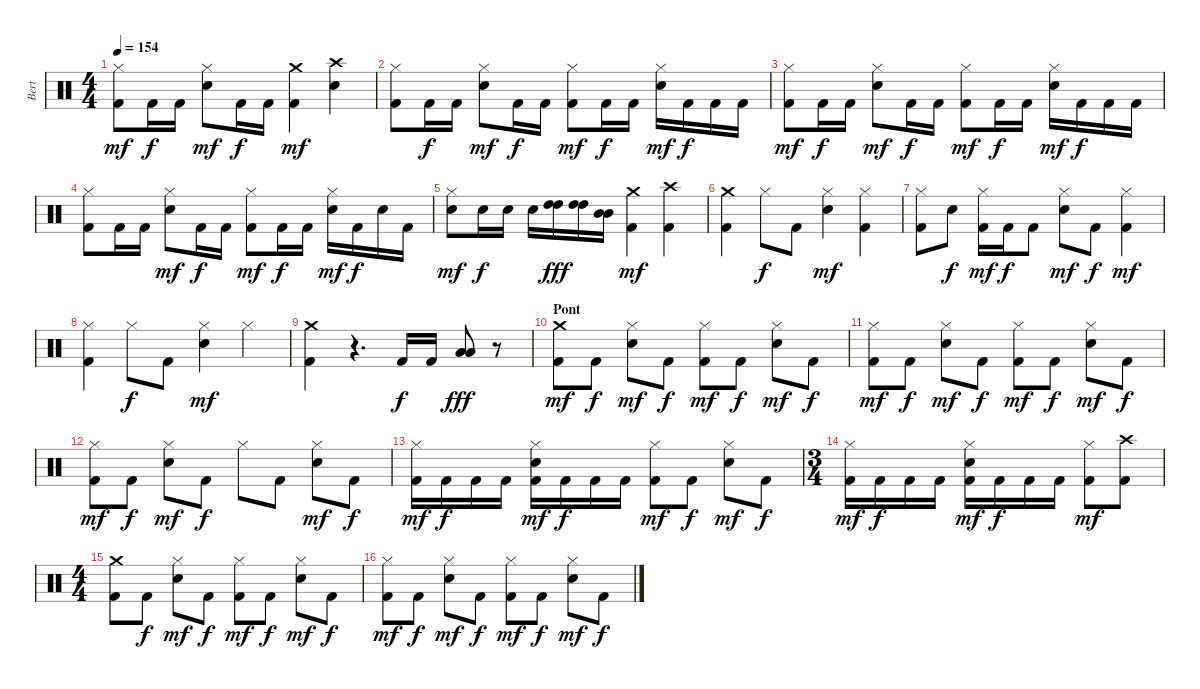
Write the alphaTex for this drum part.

\track ("Bert" "Bert") {instrument percussion}
\staff {score}
\articulation defaults
\ts (4 4)
\tempo 154
\clef neutral
\ks c
("Hi-Hat (closed)" "Kick (hit) 2").8{dy mf} "Kick (hit) 2".16{dy f} "Kick (hit) 2".16 ("Hi-Hat (closed)" "Snare (hit) 2").8{dy mf} "Kick (hit) 2".16{dy f} "Kick (hit) 2".16 ("Crash medium (hit)" "Kick (hit) 2").4{dy mf} ("Crash high (hit)" "Snare (hit) 2").4 |
("Hi-Hat (closed)" "Kick (hit) 2").8 "Kick (hit) 2".16{dy f} "Kick (hit) 2".16 ("Hi-Hat (closed)" "Snare (hit) 2").8{dy mf} "Kick (hit) 2".16{dy f} "Kick (hit) 2".16 ("Hi-Hat (closed)" "Kick (hit) 2").8{dy mf} "Kick (hit) 2".16{dy f} "Kick (hit) 2".16 ("Hi-Hat (closed)" "Snare (hit) 2").16{dy mf} "Kick (hit) 2".16{dy f} "Kick (hit) 2".16 "Kick (hit) 2".16 |
("Hi-Hat (closed)" "Kick (hit) 2").8{dy mf} "Kick (hit) 2".16{dy f} "Kick (hit) 2".16 ("Hi-Hat (closed)" "Snare (hit) 2").8{dy mf} "Kick (hit) 2".16{dy f} "Kick (hit) 2".16 ("Hi-Hat (closed)" "Kick (hit) 2").8{dy mf} "Kick (hit) 2".16{dy f} "Kick (hit) 2".16 ("Hi-Hat (closed)" "Snare (hit) 2").16{dy mf} "Kick (hit) 2".16{dy f} "Kick (hit) 2".16 "Kick (hit) 2".16 |
("Hi-Hat (closed)" "Kick (hit) 2").8 "Kick (hit) 2".16 "Kick (hit) 2".16 ("Hi-Hat (closed)" "Snare (hit) 2").8{dy mf} "Kick (hit) 2".16{dy f} "Kick (hit) 2".16 ("Hi-Hat (closed)" "Kick (hit) 2").8{dy mf} "Kick (hit) 2".16{dy f} "Kick (hit) 2".16 ("Hi-Hat (closed)" "Snare (hit) 2").16{dy mf} "Kick (hit) 2".16{dy f} "Snare (hit) 2".16 "Kick (hit) 2".16 |
("Hi-Hat (closed)" "Snare (hit) 2").8{dy mf} "Snare (hit) 2".16{dy f} "Snare (hit) 2".16 "Snare (hit) 2".16 ("High Tom (hit)" "High Tom (hit)").16{dy fff} ("High Tom (hit)" "High Tom (hit)").16 ("Mid Tom (hit)" "Mid Tom (hit)").16 ("Crash medium (hit)" "Kick (hit) 2").4{dy mf} ("Crash high (hit)" "Kick (hit) 2").4 |
("Crash medium (hit)" "Kick (hit) 2").4 "Hi-Hat (closed)".8{dy f} "Kick (hit) 2".8 ("Hi-Hat (closed)" "Snare (hit) 2").4{dy mf} ("Hi-Hat (closed)" "Kick (hit) 2").4 |
("Hi-Hat (closed)" "Kick (hit) 2").8 "Snare (hit) 2".8{dy f} ("Hi-Hat (closed)" "Kick (hit) 2").16{dy mf} "Kick (hit) 2".16{dy f} "Kick (hit) 2".8 ("Hi-Hat (closed)" "Snare (hit) 2").8{dy mf} "Kick (hit) 2".8{dy f} ("Hi-Hat (closed)" "Kick (hit) 2").4{dy mf} |
("Hi-Hat (closed)" "Kick (hit) 2").4 "Hi-Hat (closed)".8{dy f} "Kick (hit) 2".8 ("Hi-Hat (closed)" "Snare (hit) 2").4{dy mf} "Hi-Hat (closed)".4 |
("Crash medium (hit)" "Kick (hit) 2").4 r.4{d} "Kick (hit) 2".16{dy f} "Kick (hit) 2".16 ("Low Floor Tom (hit)" "Low Floor Tom (hit)").8{dy fff} r.8 |
\section ("" "Pont")
("Crash medium (hit)" "Kick (hit) 2").8{dy mf} "Kick (hit) 2".8{dy f} ("Hi-Hat (closed)" "Snare (hit) 2").8{dy mf} "Kick (hit) 2".8{dy f} ("Hi-Hat (closed)" "Kick (hit) 2").8{dy mf} "Kick (hit) 2".8{dy f} ("Hi-Hat (closed)" "Snare (hit) 2").8{dy mf} "Kick (hit) 2".8{dy f} |
("Hi-Hat (closed)" "Kick (hit) 2").8{dy mf} "Kick (hit) 2".8{dy f} ("Hi-Hat (closed)" "Snare (hit) 2").8{dy mf} "Kick (hit) 2".8{dy f} ("Hi-Hat (closed)" "Kick (hit) 2").8{dy mf} "Kick (hit) 2".8{dy f} ("Hi-Hat (closed)" "Snare (hit) 2").8{dy mf} "Kick (hit) 2".8{dy f} |
("Hi-Hat (closed)" "Kick (hit) 2").8{dy mf} "Kick (hit) 2".8{dy f} ("Hi-Hat (closed)" "Snare (hit) 2").8{dy mf} "Kick (hit) 2".8{dy f} "Hi-Hat (closed)".8 "Kick (hit) 2".8 ("Hi-Hat (closed)" "Snare (hit) 2").8{dy mf} "Kick (hit) 2".8{dy f} |
("Hi-Hat (closed)" "Kick (hit) 2").16{dy mf} "Kick (hit) 2".16{dy f} "Kick (hit) 2".16 "Kick (hit) 2".16 ("Hi-Hat (closed)" "Snare (hit) 2" "Kick (hit) 2").16{dy mf} "Kick (hit) 2".16{dy f} "Kick (hit) 2".16 "Kick (hit) 2".16 ("Hi-Hat (closed)" "Kick (hit) 2").8{dy mf} "Kick (hit) 2".8{dy f} ("Hi-Hat (closed)" "Snare (hit) 2").8{dy mf} "Kick (hit) 2".8{dy f} |
\ts (3 4)
("Hi-Hat (closed)" "Kick (hit) 2").16{dy mf} "Kick (hit) 2".16{dy f} "Kick (hit) 2".16 "Kick (hit) 2".16 ("Hi-Hat (closed)" "Snare (hit) 2" "Kick (hit) 2").16{dy mf} "Kick (hit) 2".16{dy f} "Kick (hit) 2".16 "Kick (hit) 2".16 ("Hi-Hat (closed)" "Kick (hit) 2").8{dy mf} ("Crash high (hit)" "Kick (hit) 2").8 |
\ts (4 4)
("Crash medium (hit)" "Kick (hit) 2").8 "Kick (hit) 2".8{dy f} ("Hi-Hat (closed)" "Snare (hit) 2").8{dy mf} "Kick (hit) 2".8{dy f} ("Hi-Hat (closed)" "Kick (hit) 2").8{dy mf} "Kick (hit) 2".8{dy f} ("Hi-Hat (closed)" "Snare (hit) 2").8{dy mf} "Kick (hit) 2".8{dy f} |
("Hi-Hat (closed)" "Kick (hit) 2").8{dy mf} "Kick (hit) 2".8{dy f} ("Hi-Hat (closed)" "Snare (hit) 2").8{dy mf} "Kick (hit) 2".8{dy f} ("Hi-Hat (closed)" "Kick (hit) 2").8{dy mf} "Kick (hit) 2".8{dy f} ("Hi-Hat (closed)" "Snare (hit) 2").8{dy mf} "Kick (hit) 2".8{dy f}
